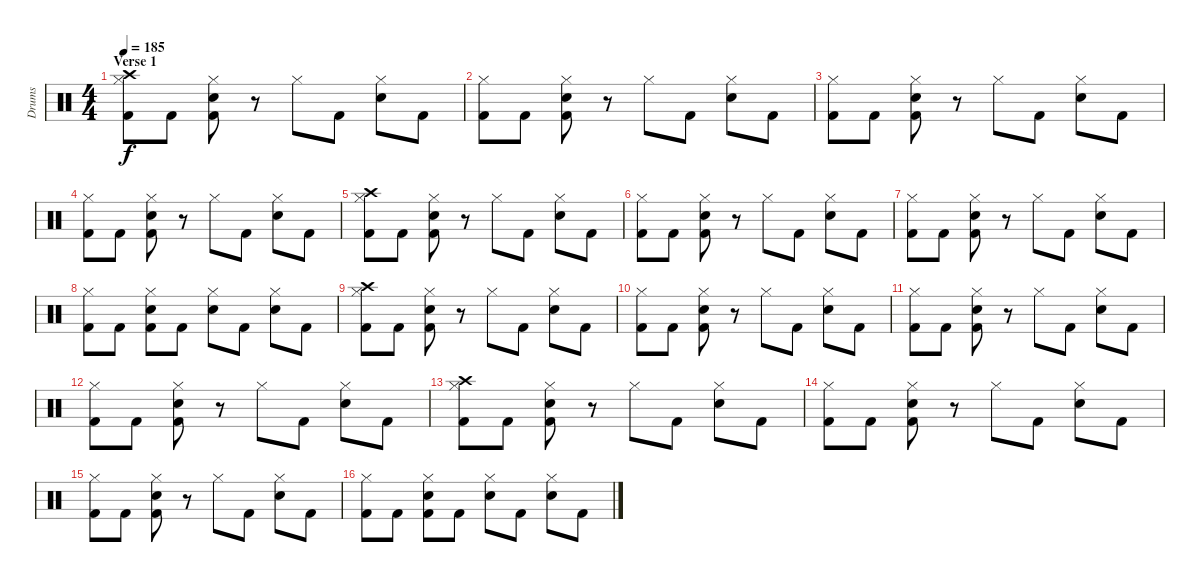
\track ("Drums" "Drums") {instrument percussion}
\staff {score}
\articulation defaults
\ts (4 4)
\section ("" "Verse 1")
\tempo 185
\clef neutral
\ks c
("Hi-Hat (closed)" "Kick (hit) 2" "Crash high (hit)").8{dy f} "Kick (hit) 2".8 ("Hi-Hat (closed)" "Kick (hit) 2" "Electric Snare (hit)").8 r.8 "Hi-Hat (closed)".8 "Kick (hit) 2".8 ("Hi-Hat (closed)" "Electric Snare (hit)").8 "Kick (hit) 2".8 |
("Hi-Hat (closed)" "Kick (hit) 2").8 "Kick (hit) 2".8 ("Hi-Hat (closed)" "Kick (hit) 2" "Electric Snare (hit)").8 r.8 "Hi-Hat (closed)".8 "Kick (hit) 2".8 ("Hi-Hat (closed)" "Electric Snare (hit)").8 "Kick (hit) 2".8 |
("Hi-Hat (closed)" "Kick (hit) 2").8 "Kick (hit) 2".8 ("Hi-Hat (closed)" "Kick (hit) 2" "Electric Snare (hit)").8 r.8 "Hi-Hat (closed)".8 "Kick (hit) 2".8 ("Hi-Hat (closed)" "Electric Snare (hit)").8 "Kick (hit) 2".8 |
("Hi-Hat (closed)" "Kick (hit) 2").8 "Kick (hit) 2".8 ("Hi-Hat (closed)" "Kick (hit) 2" "Electric Snare (hit)").8 r.8 "Hi-Hat (closed)".8 "Kick (hit) 2".8 ("Hi-Hat (closed)" "Electric Snare (hit)").8 "Kick (hit) 2".8 |
("Hi-Hat (closed)" "Kick (hit) 2" "Crash high (hit)").8 "Kick (hit) 2".8 ("Hi-Hat (closed)" "Kick (hit) 2" "Electric Snare (hit)").8 r.8 "Hi-Hat (closed)".8 "Kick (hit) 2".8 ("Hi-Hat (closed)" "Electric Snare (hit)").8 "Kick (hit) 2".8 |
("Hi-Hat (closed)" "Kick (hit) 2").8 "Kick (hit) 2".8 ("Hi-Hat (closed)" "Kick (hit) 2" "Electric Snare (hit)").8 r.8 "Hi-Hat (closed)".8 "Kick (hit) 2".8 ("Hi-Hat (closed)" "Electric Snare (hit)").8 "Kick (hit) 2".8 |
("Hi-Hat (closed)" "Kick (hit) 2").8 "Kick (hit) 2".8 ("Hi-Hat (closed)" "Kick (hit) 2" "Electric Snare (hit)").8 r.8 "Hi-Hat (closed)".8 "Kick (hit) 2".8 ("Hi-Hat (closed)" "Electric Snare (hit)").8 "Kick (hit) 2".8 |
("Hi-Hat (closed)" "Kick (hit) 2").8 "Kick (hit) 2".8 ("Hi-Hat (closed)" "Kick (hit) 2" "Electric Snare (hit)").8 "Kick (hit) 2".8 ("Hi-Hat (closed)" "Electric Snare (hit)").8 "Kick (hit) 2".8 ("Hi-Hat (closed)" "Electric Snare (hit)").8 "Kick (hit) 2".8 |
("Hi-Hat (closed)" "Kick (hit) 2" "Crash high (hit)").8 "Kick (hit) 2".8 ("Hi-Hat (closed)" "Kick (hit) 2" "Electric Snare (hit)").8 r.8 "Hi-Hat (closed)".8 "Kick (hit) 2".8 ("Hi-Hat (closed)" "Electric Snare (hit)").8 "Kick (hit) 2".8 |
("Hi-Hat (closed)" "Kick (hit) 2").8 "Kick (hit) 2".8 ("Hi-Hat (closed)" "Kick (hit) 2" "Electric Snare (hit)").8 r.8 "Hi-Hat (closed)".8 "Kick (hit) 2".8 ("Hi-Hat (closed)" "Electric Snare (hit)").8 "Kick (hit) 2".8 |
("Hi-Hat (closed)" "Kick (hit) 2").8 "Kick (hit) 2".8 ("Hi-Hat (closed)" "Kick (hit) 2" "Electric Snare (hit)").8 r.8 "Hi-Hat (closed)".8 "Kick (hit) 2".8 ("Hi-Hat (closed)" "Electric Snare (hit)").8 "Kick (hit) 2".8 |
("Hi-Hat (closed)" "Kick (hit) 2").8 "Kick (hit) 2".8 ("Hi-Hat (closed)" "Kick (hit) 2" "Electric Snare (hit)").8 r.8 "Hi-Hat (closed)".8 "Kick (hit) 2".8 ("Hi-Hat (closed)" "Electric Snare (hit)").8 "Kick (hit) 2".8 |
("Hi-Hat (closed)" "Kick (hit) 2" "Crash high (hit)").8 "Kick (hit) 2".8 ("Hi-Hat (closed)" "Kick (hit) 2" "Electric Snare (hit)").8 r.8 "Hi-Hat (closed)".8 "Kick (hit) 2".8 ("Hi-Hat (closed)" "Electric Snare (hit)").8 "Kick (hit) 2".8 |
("Hi-Hat (closed)" "Kick (hit) 2").8 "Kick (hit) 2".8 ("Hi-Hat (closed)" "Kick (hit) 2" "Electric Snare (hit)").8 r.8 "Hi-Hat (closed)".8 "Kick (hit) 2".8 ("Hi-Hat (closed)" "Electric Snare (hit)").8 "Kick (hit) 2".8 |
("Hi-Hat (closed)" "Kick (hit) 2").8 "Kick (hit) 2".8 ("Hi-Hat (closed)" "Kick (hit) 2" "Electric Snare (hit)").8 r.8 "Hi-Hat (closed)".8 "Kick (hit) 2".8 ("Hi-Hat (closed)" "Electric Snare (hit)").8 "Kick (hit) 2".8 |
("Hi-Hat (closed)" "Kick (hit) 2").8 "Kick (hit) 2".8 ("Hi-Hat (closed)" "Kick (hit) 2" "Electric Snare (hit)").8 "Kick (hit) 2".8 ("Hi-Hat (closed)" "Electric Snare (hit)").8 "Kick (hit) 2".8 ("Hi-Hat (closed)" "Electric Snare (hit)").8 "Kick (hit) 2".8
